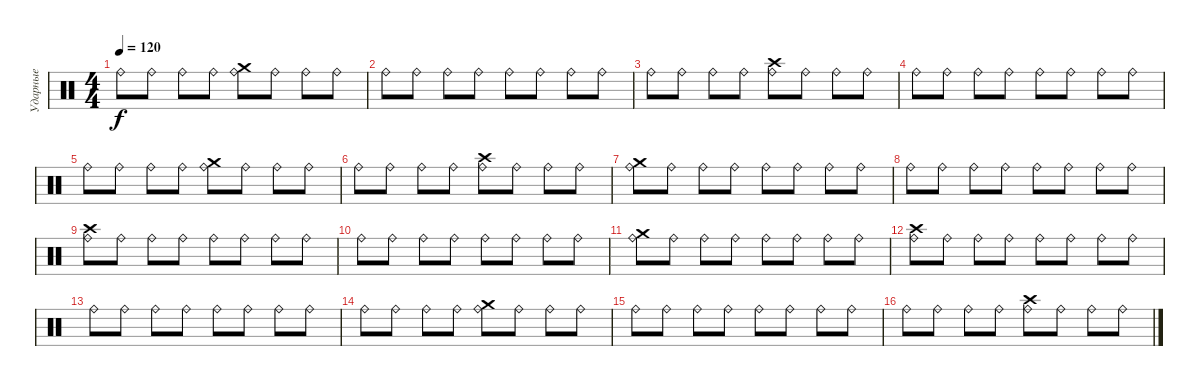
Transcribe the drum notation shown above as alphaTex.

\track ("Ударные" "Ударные") {instrument percussion}
\staff {score}
\articulation defaults
\ts (4 4)
\tempo 120
\clef neutral
\ks c "Ride (bell)".8{dy f} "Ride (bell)".8 "Ride (bell)".8 "Ride (bell)".8
("Crash medium (hit)" "Ride (bell)").8 "Ride (bell)".8 "Ride (bell)".8 "Ride (bell)".8 |
"Ride (bell)".8 "Ride (bell)".8 "Ride (bell)".8 "Ride (bell)".8 "Ride (bell)".8 "Ride (bell)".8 "Ride (bell)".8 "Ride (bell)".8 |
"Ride (bell)".8 "Ride (bell)".8 "Ride (bell)".8 "Ride (bell)".8 ("Crash high (hit)" "Ride (bell)").8 "Ride (bell)".8 "Ride (bell)".8 "Ride (bell)".8 |
"Ride (bell)".8 "Ride (bell)".8 "Ride (bell)".8 "Ride (bell)".8 "Ride (bell)".8 "Ride (bell)".8 "Ride (bell)".8 "Ride (bell)".8 |
"Ride (bell)".8 "Ride (bell)".8 "Ride (bell)".8 "Ride (bell)".8 ("Crash medium (hit)" "Ride (bell)").8 "Ride (bell)".8 "Ride (bell)".8 "Ride (bell)".8 |
"Ride (bell)".8 "Ride (bell)".8 "Ride (bell)".8 "Ride (bell)".8 ("Crash high (hit)" "Ride (bell)").8 "Ride (bell)".8 "Ride (bell)".8 "Ride (bell)".8 |
("Crash medium (hit)" "Ride (bell)").8 "Ride (bell)".8 "Ride (bell)".8 "Ride (bell)".8 "Ride (bell)".8 "Ride (bell)".8 "Ride (bell)".8 "Ride (bell)".8 |
"Ride (bell)".8 "Ride (bell)".8 "Ride (bell)".8 "Ride (bell)".8 "Ride (bell)".8 "Ride (bell)".8 "Ride (bell)".8 "Ride (bell)".8 |
("Crash high (hit)" "Ride (bell)").8 "Ride (bell)".8 "Ride (bell)".8 "Ride (bell)".8 "Ride (bell)".8 "Ride (bell)".8 "Ride (bell)".8 "Ride (bell)".8 |
"Ride (bell)".8 "Ride (bell)".8 "Ride (bell)".8 "Ride (bell)".8 "Ride (bell)".8 "Ride (bell)".8 "Ride (bell)".8 "Ride (bell)".8 |
("Crash medium (hit)" "Ride (bell)").8 "Ride (bell)".8 "Ride (bell)".8 "Ride (bell)".8 "Ride (bell)".8 "Ride (bell)".8 "Ride (bell)".8 "Ride (bell)".8 |
("Crash high (hit)" "Ride (bell)").8 "Ride (bell)".8 "Ride (bell)".8 "Ride (bell)".8 "Ride (bell)".8 "Ride (bell)".8 "Ride (bell)".8 "Ride (bell)".8 |
"Ride (bell)".8 "Ride (bell)".8 "Ride (bell)".8 "Ride (bell)".8 "Ride (bell)".8 "Ride (bell)".8 "Ride (bell)".8 "Ride (bell)".8 |
"Ride (bell)".8 "Ride (bell)".8 "Ride (bell)".8 "Ride (bell)".8 ("Crash medium (hit)" "Ride (bell)").8 "Ride (bell)".8 "Ride (bell)".8 "Ride (bell)".8 |
"Ride (bell)".8 "Ride (bell)".8 "Ride (bell)".8 "Ride (bell)".8 "Ride (bell)".8 "Ride (bell)".8 "Ride (bell)".8 "Ride (bell)".8 |
"Ride (bell)".8 "Ride (bell)".8 "Ride (bell)".8 "Ride (bell)".8 ("Crash high (hit)" "Ride (bell)").8 "Ride (bell)".8 "Ride (bell)".8 "Ride (bell)".8
